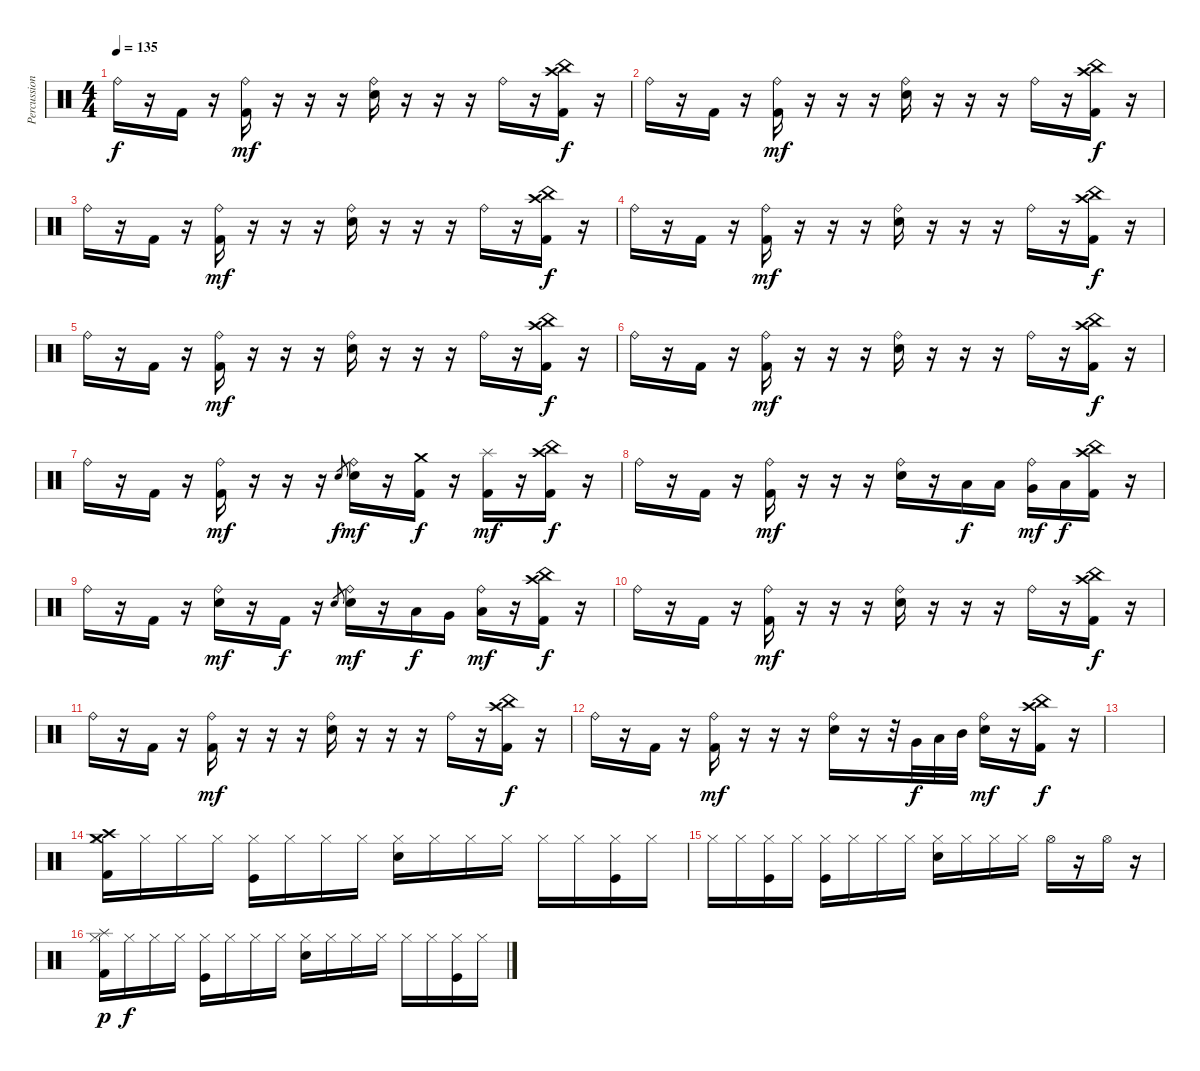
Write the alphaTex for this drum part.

\track ("Percussion" "Percussion") {instrument percussion}
\staff {score}
\articulation defaults
\ts (4 4)
\tempo 135
\clef neutral
\ks c "Ride (bell)".16{dy f}
r.16 "Kick (hit) 2".16 r.16 ("Ride (bell)" "Kick (hit) 2").16{dy mf} r.16 r.16 r.16 ("Ride (bell)" "Electric Snare (hit)").16 r.16 r.16 r.16 "Ride (bell)".16 r.16 ("Crash high (hit)" "China (hit)" "Kick (hit) 2").16{dy f} r.16 |
"Ride (bell)".16 r.16 "Kick (hit) 2".16 r.16 ("Ride (bell)" "Kick (hit) 2").16{dy mf} r.16 r.16 r.16 ("Ride (bell)" "Electric Snare (hit)").16 r.16 r.16 r.16 "Ride (bell)".16 r.16 ("Crash high (hit)" "China (hit)" "Kick (hit) 2").16{dy f} r.16 |
"Ride (bell)".16 r.16 "Kick (hit) 2".16 r.16 ("Ride (bell)" "Kick (hit) 2").16{dy mf} r.16 r.16 r.16 ("Ride (bell)" "Electric Snare (hit)").16 r.16 r.16 r.16 "Ride (bell)".16 r.16 ("Crash high (hit)" "China (hit)" "Kick (hit) 2").16{dy f} r.16 |
"Ride (bell)".16 r.16 "Kick (hit) 2".16 r.16 ("Ride (bell)" "Kick (hit) 2").16{dy mf} r.16 r.16 r.16 ("Ride (bell)" "Electric Snare (hit)").16 r.16 r.16 r.16 "Ride (bell)".16 r.16 ("Crash high (hit)" "China (hit)" "Kick (hit) 2").16{dy f} r.16 |
"Ride (bell)".16 r.16 "Kick (hit) 2".16 r.16 ("Ride (bell)" "Kick (hit) 2").16{dy mf} r.16 r.16 r.16 ("Ride (bell)" "Electric Snare (hit)").16 r.16 r.16 r.16 "Ride (bell)".16 r.16 ("Crash high (hit)" "China (hit)" "Kick (hit) 2").16{dy f} r.16 |
"Ride (bell)".16 r.16 "Kick (hit) 2".16 r.16 ("Ride (bell)" "Kick (hit) 2").16{dy mf} r.16 r.16 r.16 ("Ride (bell)" "Electric Snare (hit)").16 r.16 r.16 r.16 "Ride (bell)".16 r.16 ("Crash high (hit)" "China (hit)" "Kick (hit) 2").16{dy f} r.16 |
"Ride (bell)".16 r.16 "Kick (hit) 2".16 r.16 ("Ride (bell)" "Kick (hit) 2").16{dy mf} r.16 r.16 r.16 "Electric Snare (hit)".8{gr dy f} ("Ride (bell)" "Electric Snare (hit)").16{dy mf} r.16 ("Crash medium (hit)" "Kick (hit) 2").16{dy f} r.16 ("Splash (hit)" "Kick (hit) 2").16{dy mf} r.16 ("Crash high (hit)" "China (hit)" "Kick (hit) 2").16{dy f} r.16 |
"Ride (bell)".16 r.16 "Kick (hit) 2".16 r.16 ("Ride (bell)" "Kick (hit) 2").16{dy mf} r.16 r.16 r.16 ("Ride (bell)" "Electric Snare (hit)").16 r.16 "Low Tom (hit)".16{dy f} "Low Tom (hit)".16 ("Ride (bell)" "Very Low Tom (hit)").16{dy mf} "Low Floor Tom (hit)".16{dy f} ("Crash high (hit)" "China (hit)" "Kick (hit) 2").16 r.16 |
"Ride (bell)".16 r.16 "Kick (hit) 2".16 r.16 ("Ride (bell)" "Electric Snare (hit)").16{dy mf} r.16 "Kick (hit) 2".16{dy f} r.16 "Electric Snare (hit)".8{gr} ("Ride (bell)" "Electric Snare (hit)").16{dy mf} r.16 "Low Tom (hit)".16{dy f} "Very Low Tom (hit)".16 ("Ride (bell)" "Low Floor Tom (hit)").16{dy mf} r.16 ("Crash high (hit)" "China (hit)" "Kick (hit) 2").16{dy f} r.16 |
"Ride (bell)".16 r.16 "Kick (hit) 2".16 r.16 ("Ride (bell)" "Kick (hit) 2").16{dy mf} r.16 r.16 r.16 ("Ride (bell)" "Electric Snare (hit)").16 r.16 r.16 r.16 "Ride (bell)".16 r.16 ("Crash high (hit)" "China (hit)" "Kick (hit) 2").16{dy f} r.16 |
"Ride (bell)".16 r.16 "Kick (hit) 2".16 r.16 ("Ride (bell)" "Kick (hit) 2").16{dy mf} r.16 r.16 r.16 ("Ride (bell)" "Electric Snare (hit)").16 r.16 r.16 r.16 "Ride (bell)".16 r.16 ("Crash high (hit)" "China (hit)" "Kick (hit) 2").16{dy f} r.16 |
"Ride (bell)".16 r.16 "Kick (hit) 2".16 r.16 ("Ride (bell)" "Kick (hit) 2").16{dy mf} r.16 r.16 r.16 ("Ride (bell)" "Electric Snare (hit)").16 r.16 r.32 "Very Low Tom (hit)".32{dy f} "Low Tom (hit)".32 "Mid Tom (hit)".32 ("Ride (bell)" "Electric Snare (hit)").16{dy mf} r.16 ("Crash high (hit)" "China (hit)" "Kick (hit) 2").16{dy f} r.16 |
|
("Hi-Hat (closed)" "Crash high (hit)" "Crash medium (hit)" "Kick (hit) 2").16 "Hi-Hat (closed)".16 "Hi-Hat (closed)".16 "Hi-Hat (closed)".16 ("Hi-Hat (closed)" "Kick (hit)").16 "Hi-Hat (closed)".16 "Hi-Hat (closed)".16 "Hi-Hat (closed)".16 ("Hi-Hat (closed)" "Electric Snare (hit)").16 "Hi-Hat (closed)".16 "Hi-Hat (closed)".16 "Hi-Hat (closed)".16 "Hi-Hat (closed)".16 "Hi-Hat (closed)".16 ("Hi-Hat (closed)" "Kick (hit)").16 "Hi-Hat (closed)".16 |
"Hi-Hat (closed)".16 "Hi-Hat (closed)".16 ("Hi-Hat (closed)" "Kick (hit)").16 "Hi-Hat (closed)".16 ("Hi-Hat (closed)" "Kick (hit)").16 "Hi-Hat (closed)".16 "Hi-Hat (closed)".16 "Hi-Hat (closed)".16 ("Hi-Hat (closed)" "Electric Snare (hit)").16 "Hi-Hat (closed)".16 "Hi-Hat (closed)".16 "Hi-Hat (closed)".16 "Hi-Hat (open)".16 r.16 "Hi-Hat (open)".16 r.16 |
("Hi-Hat (closed)" "Splash (hit)" "Kick (hit) 2").16{dy p} "Hi-Hat (closed)".16{dy f} "Hi-Hat (closed)".16 "Hi-Hat (closed)".16 ("Hi-Hat (closed)" "Kick (hit)").16 "Hi-Hat (closed)".16 "Hi-Hat (closed)".16 "Hi-Hat (closed)".16 ("Hi-Hat (closed)" "Electric Snare (hit)").16 "Hi-Hat (closed)".16 "Hi-Hat (closed)".16 "Hi-Hat (closed)".16 "Hi-Hat (closed)".16 "Hi-Hat (closed)".16 ("Hi-Hat (closed)" "Kick (hit)").16 "Hi-Hat (closed)".16
